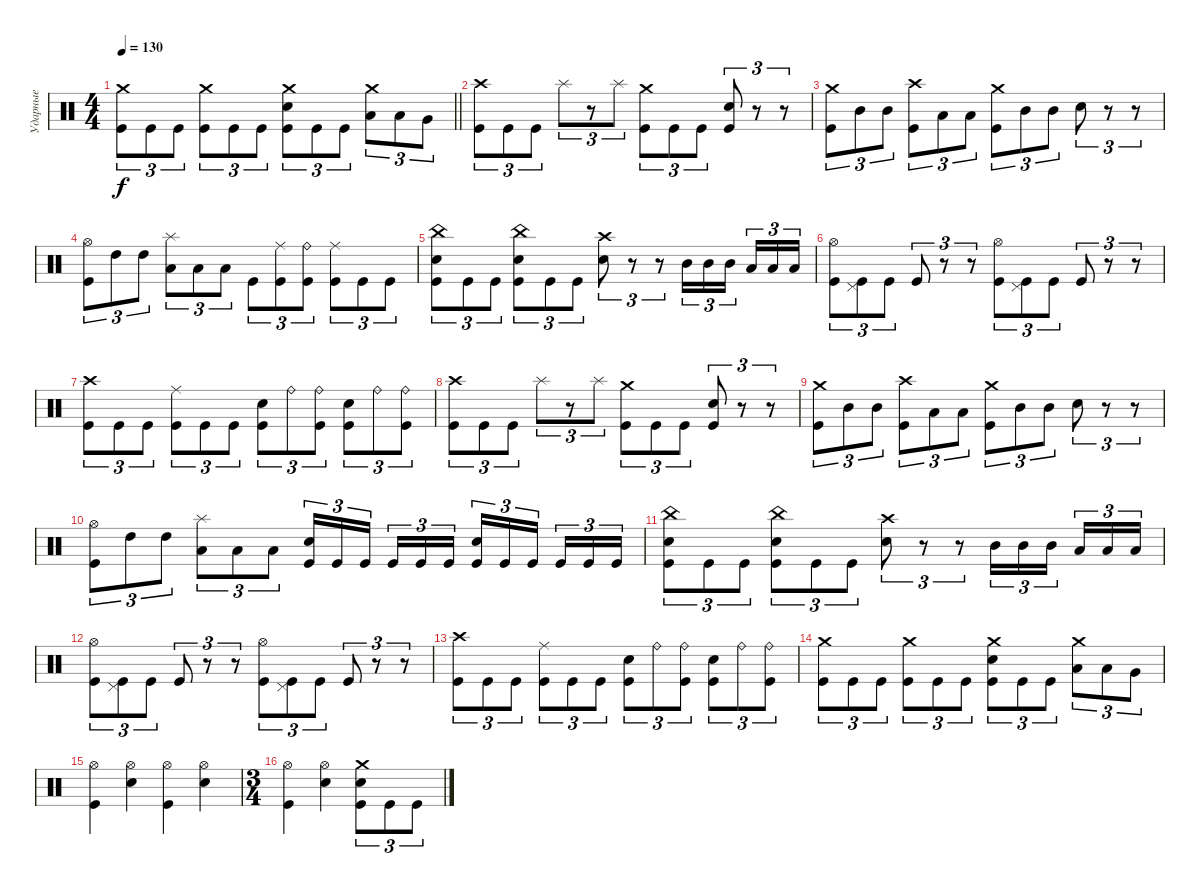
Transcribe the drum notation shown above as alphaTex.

\track ("Ударные" "Ударные") {instrument percussion}
\staff {score}
\articulation defaults
\ts (4 4)
\tempo 130
\clef neutral
\barLineRight lightlight
\ks c
("Crash medium (hit)" "Kick (hit)").8{tu (3 2) dy f} "Kick (hit)".8{tu (3 2)} "Kick (hit)".8{tu (3 2)} ("Crash medium (hit)" "Kick (hit)").8{tu (3 2)} "Kick (hit)".8{tu (3 2)} "Kick (hit)".8{tu (3 2)} ("Crash medium (hit)" "Electric Snare (hit)" "Kick (hit)").8{tu (3 2)} "Kick (hit)".8{tu (3 2)} "Kick (hit)".8{tu (3 2)} ("Crash medium (hit)" "Low Tom (hit)").8{tu (3 2)} "Low Tom (hit)".8{tu (3 2)} "Very Low Tom (hit)".8{tu (3 2)} |
\section ("" " ")
("Crash high (hit)" "Kick (hit)").8{tu (3 2)} "Kick (hit)".8{tu (3 2)} "Kick (hit)".8{tu (3 2)} "Splash (hit)".8{tu (3 2)} r.8{tu (3 2)} "Splash (hit)".8{tu (3 2)} ("Crash medium (hit)" "Kick (hit)").8{tu (3 2)} "Kick (hit)".8{tu (3 2)} "Kick (hit)".8{tu (3 2)} ("Electric Snare (hit)" "Kick (hit)").8{tu (3 2)} r.8{tu (3 2)} r.8{tu (3 2)} |
("Crash medium (hit)" "Kick (hit)").8{tu (3 2)} "Mid Tom (hit)".8{tu (3 2)} "Mid Tom (hit)".8{tu (3 2)} ("Crash high (hit)" "Kick (hit)").8{tu (3 2)} "Low Tom (hit)".8{tu (3 2)} "Low Tom (hit)".8{tu (3 2)} ("Crash medium (hit)" "Kick (hit)").8{tu (3 2)} "Mid Tom (hit)".8{tu (3 2)} "Mid Tom (hit)".8{tu (3 2)} "Electric Snare (hit)".8{tu (3 2)} r.8{tu (3 2)} r.8{tu (3 2)} |
("Hi-Hat (open)" "Kick (hit)").8{tu (3 2)} "High Tom (hit)".8{tu (3 2)} "High Tom (hit)".8{tu (3 2)} ("Splash (hit)" "Low Tom (hit)").8{tu (3 2)} "Low Tom (hit)".8{tu (3 2)} "Low Tom (hit)".8{tu (3 2)} "Kick (hit)".8{tu (3 2)} ("Ride (middle)" "Kick (hit)").8{tu (3 2)} ("Ride (bell)" "Kick (hit)").8{tu (3 2)} ("Ride (middle)" "Kick (hit)").8{tu (3 2)} "Kick (hit)".8{tu (3 2)} "Kick (hit)".8{tu (3 2)} |
("China (hit)" "Electric Snare (hit)" "Kick (hit)").8{tu (3 2)} "Kick (hit)".8{tu (3 2)} "Kick (hit)".8{tu (3 2)} ("China (hit)" "Kick (hit)" "Electric Snare (hit)").8{tu (3 2)} "Kick (hit)".8{tu (3 2)} "Kick (hit)".8{tu (3 2)} ("Crash high (hit)" "Electric Snare (hit)").8{tu (3 2)} r.8{tu (3 2)} r.8{tu (3 2)} "Mid Tom (hit)".16{tu (3 2)} "Mid Tom (hit)".16{tu (3 2)} "Mid Tom (hit)".16{tu (3 2) beam splitsecondary} "Low Tom (hit)".16{tu (3 2)} "Low Tom (hit)".16{tu (3 2)} "Low Tom (hit)".16{tu (3 2)} |
("Hi-Hat (open)" "Kick (hit)").8{tu (3 2)} ("Pedal Hi-Hat (hit)" "Kick (hit)").8{tu (3 2)} "Kick (hit)".8{tu (3 2)} "Kick (hit)".8{tu (3 2)} r.8{tu (3 2)} r.8{tu (3 2)} ("Hi-Hat (open)" "Kick (hit)").8{tu (3 2)} ("Pedal Hi-Hat (hit)" "Kick (hit)").8{tu (3 2)} "Kick (hit)".8{tu (3 2)} "Kick (hit)".8{tu (3 2)} r.8{tu (3 2)} r.8{tu (3 2)} |
("Crash high (hit)" "Kick (hit)").8{tu (3 2)} "Kick (hit)".8{tu (3 2)} "Kick (hit)".8{tu (3 2)} ("Ride (middle)" "Kick (hit)").8{tu (3 2)} "Kick (hit)".8{tu (3 2)} "Kick (hit)".8{tu (3 2)} ("Electric Snare (hit)" "Kick (hit)").8{tu (3 2)} "Ride (bell)".8{tu (3 2)} ("Ride (bell)" "Kick (hit)").8{tu (3 2)} ("Electric Snare (hit)" "Kick (hit)").8{tu (3 2)} "Ride (bell)".8{tu (3 2)} ("Ride (bell)" "Kick (hit)").8{tu (3 2)} |
("Crash high (hit)" "Kick (hit)").8{tu (3 2)} "Kick (hit)".8{tu (3 2)} "Kick (hit)".8{tu (3 2)} "Splash (hit)".8{tu (3 2)} r.8{tu (3 2)} "Splash (hit)".8{tu (3 2)} ("Crash medium (hit)" "Kick (hit)").8{tu (3 2)} "Kick (hit)".8{tu (3 2)} "Kick (hit)".8{tu (3 2)} ("Electric Snare (hit)" "Kick (hit)").8{tu (3 2)} r.8{tu (3 2)} r.8{tu (3 2)} |
("Crash medium (hit)" "Kick (hit)").8{tu (3 2)} "Mid Tom (hit)".8{tu (3 2)} "Mid Tom (hit)".8{tu (3 2)} ("Crash high (hit)" "Kick (hit)").8{tu (3 2)} "Low Tom (hit)".8{tu (3 2)} "Low Tom (hit)".8{tu (3 2)} ("Crash medium (hit)" "Kick (hit)").8{tu (3 2)} "Mid Tom (hit)".8{tu (3 2)} "Mid Tom (hit)".8{tu (3 2)} "Electric Snare (hit)".8{tu (3 2)} r.8{tu (3 2)} r.8{tu (3 2)} |
("Hi-Hat (open)" "Kick (hit)").8{tu (3 2)} "High Tom (hit)".8{tu (3 2)} "High Tom (hit)".8{tu (3 2)} ("Splash (hit)" "Low Tom (hit)").8{tu (3 2)} "Low Tom (hit)".8{tu (3 2)} "Low Tom (hit)".8{tu (3 2)} ("Electric Snare (hit)" "Kick (hit)").16{tu (3 2)} "Kick (hit)".16{tu (3 2)} "Kick (hit)".16{tu (3 2) beam splitsecondary} "Kick (hit)".16{tu (3 2)} "Kick (hit)".16{tu (3 2)} "Kick (hit)".16{tu (3 2)} ("Electric Snare (hit)" "Kick (hit)").16{tu (3 2)} "Kick (hit)".16{tu (3 2)} "Kick (hit)".16{tu (3 2) beam splitsecondary} "Kick (hit)".16{tu (3 2)} "Kick (hit)".16{tu (3 2)} "Kick (hit)".16{tu (3 2)} |
("China (hit)" "Electric Snare (hit)" "Kick (hit)").8{tu (3 2)} "Kick (hit)".8{tu (3 2)} "Kick (hit)".8{tu (3 2)} ("China (hit)" "Kick (hit)" "Electric Snare (hit)").8{tu (3 2)} "Kick (hit)".8{tu (3 2)} "Kick (hit)".8{tu (3 2)} ("Crash high (hit)" "Electric Snare (hit)").8{tu (3 2)} r.8{tu (3 2)} r.8{tu (3 2)} "Mid Tom (hit)".16{tu (3 2)} "Mid Tom (hit)".16{tu (3 2)} "Mid Tom (hit)".16{tu (3 2) beam splitsecondary} "Low Tom (hit)".16{tu (3 2)} "Low Tom (hit)".16{tu (3 2)} "Low Tom (hit)".16{tu (3 2)} |
("Hi-Hat (open)" "Kick (hit)").8{tu (3 2)} ("Pedal Hi-Hat (hit)" "Kick (hit)").8{tu (3 2)} "Kick (hit)".8{tu (3 2)} "Kick (hit)".8{tu (3 2)} r.8{tu (3 2)} r.8{tu (3 2)} ("Hi-Hat (open)" "Kick (hit)").8{tu (3 2)} ("Pedal Hi-Hat (hit)" "Kick (hit)").8{tu (3 2)} "Kick (hit)".8{tu (3 2)} "Kick (hit)".8{tu (3 2)} r.8{tu (3 2)} r.8{tu (3 2)} |
("Crash high (hit)" "Kick (hit)").8{tu (3 2)} "Kick (hit)".8{tu (3 2)} "Kick (hit)".8{tu (3 2)} ("Ride (middle)" "Kick (hit)").8{tu (3 2)} "Kick (hit)".8{tu (3 2)} "Kick (hit)".8{tu (3 2)} ("Electric Snare (hit)" "Kick (hit)").8{tu (3 2)} "Ride (bell)".8{tu (3 2)} ("Ride (bell)" "Kick (hit)").8{tu (3 2)} ("Electric Snare (hit)" "Kick (hit)").8{tu (3 2)} "Ride (bell)".8{tu (3 2)} ("Ride (bell)" "Kick (hit)").8{tu (3 2)} |
("Crash medium (hit)" "Kick (hit)").8{tu (3 2)} "Kick (hit)".8{tu (3 2)} "Kick (hit)".8{tu (3 2)} ("Crash medium (hit)" "Kick (hit)").8{tu (3 2)} "Kick (hit)".8{tu (3 2)} "Kick (hit)".8{tu (3 2)} ("Crash medium (hit)" "Electric Snare (hit)" "Kick (hit)").8{tu (3 2)} "Kick (hit)".8{tu (3 2)} "Kick (hit)".8{tu (3 2)} ("Crash medium (hit)" "Low Tom (hit)").8{tu (3 2)} "Low Tom (hit)".8{tu (3 2)} "Very Low Tom (hit)".8{tu (3 2)} |
("Hi-Hat (open)" "Kick (hit)").4 ("Hi-Hat (open)" "Electric Snare (hit)").4 ("Hi-Hat (open)" "Kick (hit)").4 ("Hi-Hat (open)" "Electric Snare (hit)").4 |
\ts (3 4)
("Hi-Hat (open)" "Kick (hit)").4 ("Hi-Hat (open)" "Electric Snare (hit)").4 ("Crash medium (hit)" "Kick (hit)" "Electric Snare (hit)").8{tu (3 2)} "Kick (hit)".8{tu (3 2)} "Kick (hit)".8{tu (3 2)}
